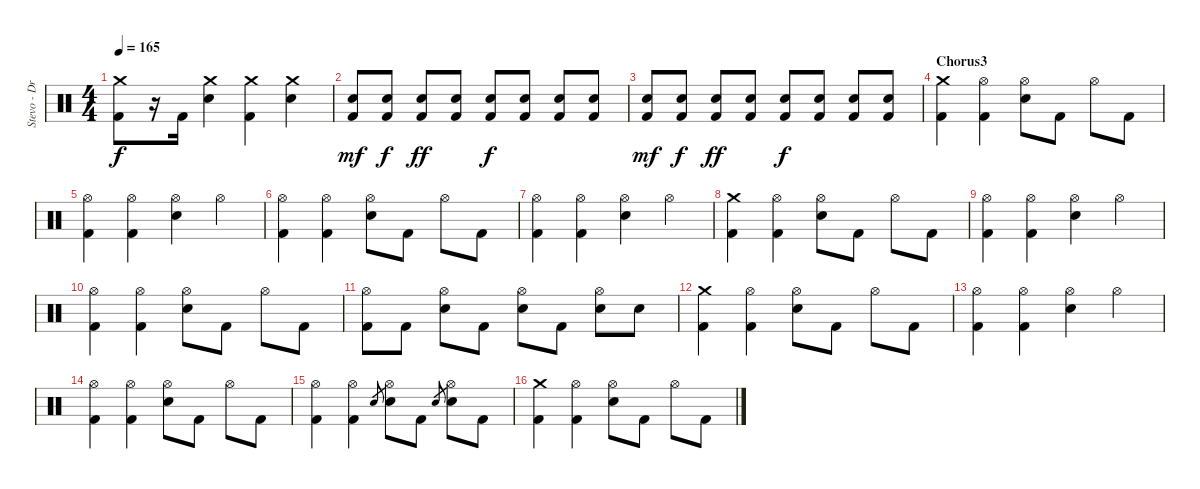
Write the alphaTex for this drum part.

\track ("Stevo - Drums" "Stevo - Dr") {instrument percussion}
\staff {score}
\articulation defaults
\ts (4 4)
\tempo 165
\clef neutral
\ks c
("Crash medium (hit)" "Kick (hit) 2").8{dy f} r.16 "Kick (hit) 2".16 ("Crash medium (hit)" "Electric Snare (hit)").4 ("Crash medium (hit)" "Kick (hit) 2").4 ("Crash medium (hit)" "Electric Snare (hit)").4 |
("Electric Snare (hit)" "Kick (hit) 2").8{dy mf} ("Electric Snare (hit)" "Kick (hit) 2").8{dy f} ("Electric Snare (hit)" "Kick (hit) 2").8{dy ff} ("Electric Snare (hit)" "Kick (hit) 2").8 ("Electric Snare (hit)" "Kick (hit) 2").8{dy f} ("Electric Snare (hit)" "Kick (hit) 2").8 ("Electric Snare (hit)" "Kick (hit) 2").8 ("Electric Snare (hit)" "Kick (hit) 2").8 |
("Electric Snare (hit)" "Kick (hit) 2").8{dy mf} ("Electric Snare (hit)" "Kick (hit) 2").8{dy f} ("Electric Snare (hit)" "Kick (hit) 2").8{dy ff} ("Electric Snare (hit)" "Kick (hit) 2").8 ("Electric Snare (hit)" "Kick (hit) 2").8{dy f} ("Electric Snare (hit)" "Kick (hit) 2").8 ("Electric Snare (hit)" "Kick (hit) 2").8 ("Electric Snare (hit)" "Kick (hit) 2").8 |
\section ("" "Chorus3")
("Crash medium (hit)" "Kick (hit) 2").4 ("Hi-Hat (open)" "Kick (hit) 2").4 ("Electric Snare (hit)" "Hi-Hat (open)").8 "Kick (hit) 2".8 "Hi-Hat (open)".8 "Kick (hit) 2".8 |
("Hi-Hat (open)" "Kick (hit) 2").4 ("Hi-Hat (open)" "Kick (hit) 2").4 ("Electric Snare (hit)" "Hi-Hat (open)").4 "Hi-Hat (open)".4 |
("Hi-Hat (open)" "Kick (hit) 2").4 ("Hi-Hat (open)" "Kick (hit) 2").4 ("Electric Snare (hit)" "Hi-Hat (open)").8 "Kick (hit) 2".8 "Hi-Hat (open)".8 "Kick (hit) 2".8 |
("Hi-Hat (open)" "Kick (hit) 2").4 ("Hi-Hat (open)" "Kick (hit) 2").4 ("Electric Snare (hit)" "Hi-Hat (open)").4 "Hi-Hat (open)".4 |
("Crash medium (hit)" "Kick (hit) 2").4 ("Hi-Hat (open)" "Kick (hit) 2").4 ("Electric Snare (hit)" "Hi-Hat (open)").8 "Kick (hit) 2".8 "Hi-Hat (open)".8 "Kick (hit) 2".8 |
("Hi-Hat (open)" "Kick (hit) 2").4 ("Hi-Hat (open)" "Kick (hit) 2").4 ("Electric Snare (hit)" "Hi-Hat (open)").4 "Hi-Hat (open)".4 |
("Hi-Hat (open)" "Kick (hit) 2").4 ("Hi-Hat (open)" "Kick (hit) 2").4 ("Electric Snare (hit)" "Hi-Hat (open)").8 "Kick (hit) 2".8 "Hi-Hat (open)".8 "Kick (hit) 2".8 |
("Hi-Hat (open)" "Kick (hit) 2").8 "Kick (hit) 2".8 ("Hi-Hat (open)" "Electric Snare (hit)").8 "Kick (hit) 2".8 ("Hi-Hat (open)" "Electric Snare (hit)").8 "Kick (hit) 2".8 ("Hi-Hat (open)" "Electric Snare (hit)").8 "Electric Snare (hit)".8 |
("Crash medium (hit)" "Kick (hit) 2").4 ("Hi-Hat (open)" "Kick (hit) 2").4 ("Electric Snare (hit)" "Hi-Hat (open)").8 "Kick (hit) 2".8 "Hi-Hat (open)".8 "Kick (hit) 2".8 |
("Hi-Hat (open)" "Kick (hit) 2").4 ("Hi-Hat (open)" "Kick (hit) 2").4 ("Electric Snare (hit)" "Hi-Hat (open)").4 "Hi-Hat (open)".4 |
("Hi-Hat (open)" "Kick (hit) 2").4 ("Hi-Hat (open)" "Kick (hit) 2").4 ("Electric Snare (hit)" "Hi-Hat (open)").8 "Kick (hit) 2".8 "Hi-Hat (open)".8 "Kick (hit) 2".8 |
("Hi-Hat (open)" "Kick (hit) 2").4 ("Hi-Hat (open)" "Kick (hit) 2").4 "Electric Snare (hit)".8{gr} ("Electric Snare (hit)" "Hi-Hat (open)").8 "Kick (hit) 2".8 "Electric Snare (hit)".8{gr} ("Hi-Hat (open)" "Electric Snare (hit)").8 "Kick (hit) 2".8 |
("Crash medium (hit)" "Kick (hit) 2").4 ("Hi-Hat (open)" "Kick (hit) 2").4 ("Electric Snare (hit)" "Hi-Hat (open)").8 "Kick (hit) 2".8 "Hi-Hat (open)".8 "Kick (hit) 2".8
